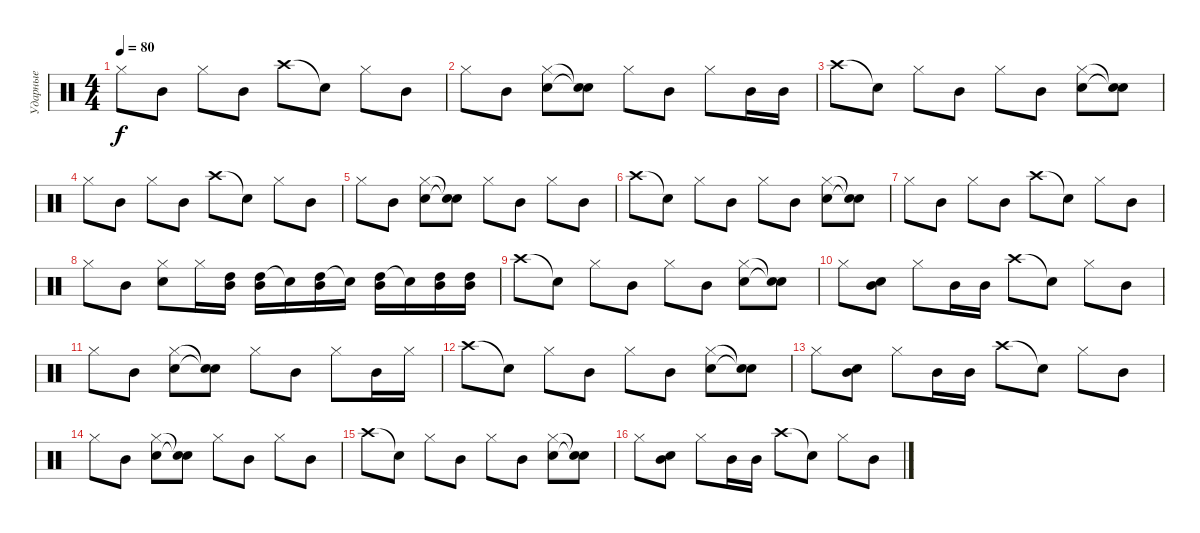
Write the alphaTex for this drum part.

\track ("Ударные" "Ударные") {instrument percussion}
\staff {score}
\articulation defaults
\ts (4 4)
\tempo 80
\clef neutral
\ks c "Hi-Hat (closed)".8{dy f} "Mid Tom (hit)".8 "Hi-Hat (closed)".8 "Mid Tom (hit)".8 "Crash high (hit)".8 "Snare (hit)"{t}.8 "Hi-Hat (closed)".8 "Mid Tom (hit)".8
|
"Hi-Hat (closed)".8 "Mid Tom (hit)".8 ("Electric Snare (hit)" "Hi-Hat (closed)").8 ("Snare (hit)"{t} "Snare (hit)"{t}).8 "Hi-Hat (closed)".8 "Mid Tom (hit)".8 "Hi-Hat (closed)".8 "Mid Tom (hit)".16 "Mid Tom (hit)".16 |
"Crash high (hit)".8 "Snare (hit)"{t}.8 "Hi-Hat (closed)".8 "Mid Tom (hit)".8 "Hi-Hat (closed)".8 "Mid Tom (hit)".8 ("Electric Snare (hit)" "Hi-Hat (closed)").8 ("Snare (hit)"{t} "Snare (hit)"{t}).8 |
"Hi-Hat (closed)".8 "Mid Tom (hit)".8 "Hi-Hat (closed)".8 "Mid Tom (hit)".8 "Crash high (hit)".8 "Snare (hit)"{t}.8 "Hi-Hat (closed)".8 "Mid Tom (hit)".8 |
"Hi-Hat (closed)".8 "Mid Tom (hit)".8 ("Electric Snare (hit)" "Hi-Hat (closed)").8 ("Snare (hit)"{t} "Snare (hit)"{t}).8 "Hi-Hat (closed)".8 "Mid Tom (hit)".8 "Hi-Hat (closed)".8 "Mid Tom (hit)".8 |
"Crash high (hit)".8 "Snare (hit)"{t}.8 "Hi-Hat (closed)".8 "Mid Tom (hit)".8 "Hi-Hat (closed)".8 "Mid Tom (hit)".8 ("Electric Snare (hit)" "Hi-Hat (closed)").8 ("Snare (hit)"{t} "Snare (hit)"{t}).8 |
"Hi-Hat (closed)".8 "Mid Tom (hit)".8 "Hi-Hat (closed)".8 "Mid Tom (hit)".8 "Crash high (hit)".8 "Snare (hit)"{t}.8 "Hi-Hat (closed)".8 "Mid Tom (hit)".8 |
"Hi-Hat (closed)".8 "Mid Tom (hit)".8 ("Electric Snare (hit)" "Hi-Hat (closed)").8 "Hi-Hat (closed)".16 ("High Tom (hit)" "Mid Tom (hit)").16 ("High Tom (hit)" "Mid Tom (hit)").16 "Snare (hit)"{t}.16 ("High Tom (hit)" "Mid Tom (hit)").16 "Snare (hit)"{t}.16 ("High Tom (hit)" "Mid Tom (hit)").16 "Snare (hit)"{t}.16 ("High Tom (hit)" "Mid Tom (hit)").16 ("High Tom (hit)" "Mid Tom (hit)").16 |
"Crash high (hit)".8 "Snare (hit)"{t}.8 "Hi-Hat (closed)".8 "Mid Tom (hit)".8 "Hi-Hat (closed)".8 "Mid Tom (hit)".8 ("Electric Snare (hit)" "Hi-Hat (closed)").8 ("Snare (hit)"{t} "Snare (hit)"{t}).8 |
"Hi-Hat (closed)".8 ("Mid Tom (hit)" "Electric Snare (hit)").8 "Hi-Hat (closed)".8 "Mid Tom (hit)".16 "Mid Tom (hit)".16 "Crash high (hit)".8 "Snare (hit)"{t}.8 "Hi-Hat (closed)".8 "Mid Tom (hit)".8 |
"Hi-Hat (closed)".8 "Mid Tom (hit)".8 ("Electric Snare (hit)" "Hi-Hat (closed)").8 ("Snare (hit)"{t} "Snare (hit)"{t}).8 "Hi-Hat (closed)".8 "Mid Tom (hit)".8 "Hi-Hat (closed)".8 "Mid Tom (hit)".16 "Hi-Hat (closed)".16 |
"Crash high (hit)".8 "Snare (hit)"{t}.8 "Hi-Hat (closed)".8 "Mid Tom (hit)".8 "Hi-Hat (closed)".8 "Mid Tom (hit)".8 ("Electric Snare (hit)" "Hi-Hat (closed)").8 ("Snare (hit)"{t} "Snare (hit)"{t}).8 |
"Hi-Hat (closed)".8 ("Mid Tom (hit)" "Electric Snare (hit)").8 "Hi-Hat (closed)".8 "Mid Tom (hit)".16 "Mid Tom (hit)".16 "Crash high (hit)".8 "Snare (hit)"{t}.8 "Hi-Hat (closed)".8 "Mid Tom (hit)".8 |
"Hi-Hat (closed)".8 "Mid Tom (hit)".8 ("Electric Snare (hit)" "Hi-Hat (closed)").8 ("Snare (hit)"{t} "Snare (hit)"{t}).8 "Hi-Hat (closed)".8 "Mid Tom (hit)".8 "Hi-Hat (closed)".8 "Mid Tom (hit)".8 |
"Crash high (hit)".8 "Snare (hit)"{t}.8 "Hi-Hat (closed)".8 "Mid Tom (hit)".8 "Hi-Hat (closed)".8 "Mid Tom (hit)".8 ("Electric Snare (hit)" "Hi-Hat (closed)").8 ("Snare (hit)"{t} "Snare (hit)"{t}).8 |
"Hi-Hat (closed)".8 ("Mid Tom (hit)" "Electric Snare (hit)").8 "Hi-Hat (closed)".8 "Mid Tom (hit)".16 "Mid Tom (hit)".16 "Crash high (hit)".8 "Snare (hit)"{t}.8 "Hi-Hat (closed)".8 "Mid Tom (hit)".8
